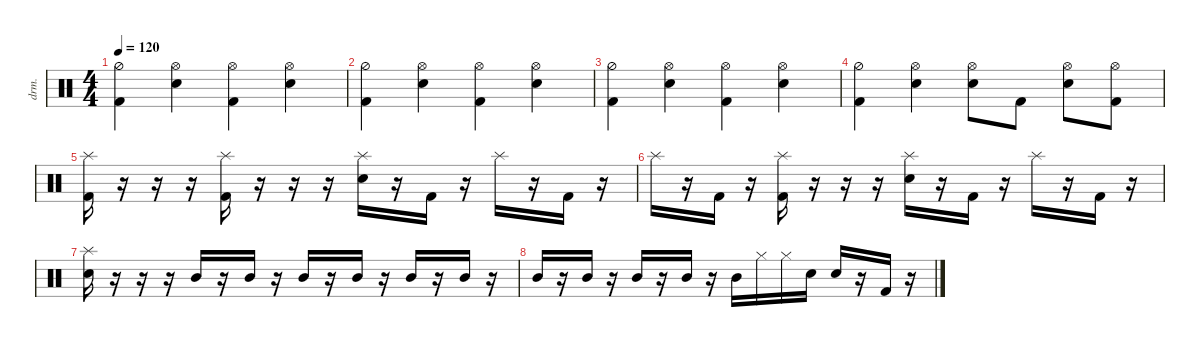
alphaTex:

\defaultSystemsLayout 4
\hideDynamics
\bracketExtendMode nobrackets
\otherSystemsTrackNameOrientation horizontal
\track ("Drumkit" "drm.") {instrument percussion}
\staff {score}
\articulation defaults
\ts (4 4)
\beaming (8 2 2 2 2)
\tempo 120
\clef neutral
\ks c
("Kick (hit) 2" "Hi-Hat (half)").4{dy mf beam Down} ("Snare (hit) 2" "Hi-Hat (open)").4{beam Down} ("Kick (hit) 2" "Hi-Hat (open)").4{beam Down} ("Snare (hit) 2" "Hi-Hat (open)").4{beam Down} |
("Kick (hit) 2" "Hi-Hat (half)").4{beam Down} ("Snare (hit) 2" "Hi-Hat (open)").4{beam Down} ("Kick (hit) 2" "Hi-Hat (open)").4{beam Down} ("Snare (hit) 2" "Hi-Hat (open)").4{beam Down} |
("Kick (hit) 2" "Hi-Hat (half)").4{beam Down} ("Snare (hit) 2" "Hi-Hat (open)").4{beam Down} ("Kick (hit) 2" "Hi-Hat (open)").4{beam Down} ("Snare (hit) 2" "Hi-Hat (open)").4{beam Down} |
("Hi-Hat (half)" "Kick (hit) 2").4{beam Down} ("Hi-Hat (open)" "Snare (hit) 2").4{beam Down} ("Hi-Hat (open)" "Snare (hit) 2").8{beam Down} "Kick (hit) 2".8{beam Down} ("Snare (hit) 2" "Hi-Hat (open)").8{beam Down} ("Hi-Hat (open)" "Kick (hit) 2").8{beam Down} |
("Kick (hit) 2" "Splash (hit)").16{beam Down} r.16{beam Down} r.16{beam Down} r.16{beam Down} ("Kick (hit) 2" "Splash (hit)").16{beam Down} r.16{beam Down} r.16{beam Down} r.16{beam Down} ("Snare (hit) 2" "Splash (hit)").16{beam Down} r.16{beam Down} "Kick (hit) 2".16{beam Down} r.16{beam Down} "Splash (hit)".16{beam Down} r.16{beam Down} "Kick (hit) 2".16{beam Down} r.16{beam Down} |
"Splash (hit)".16{beam Down} r.16{beam Down} "Kick (hit) 2".16{beam Down} r.16{beam Down} ("Kick (hit) 2" "Splash (hit)").16{beam Down} r.16{beam Down} r.16{beam Down} r.16{beam Down} ("Snare (hit) 2" "Splash (hit)").16{beam Down} r.16{beam Down} "Kick (hit) 2".16{beam Down} r.16{beam Down} "Splash (hit)".16{beam Down} r.16{beam Down} "Kick (hit) 2".16{beam Down} r.16{beam Down} |
("Snare (hit) 2" "Splash (hit)").16{beam Down} r.16{beam Down} r.16{beam Down} r.16{beam Down} "Mid Tom (hit)".16{beam Up} r.16{beam Up} "Mid Tom (hit)".16{beam Up} r.16{beam Up} "Mid Tom (hit)".16{beam Up} r.16{beam Up} "Mid Tom (hit)".16{beam Up} r.16{beam Up} "Mid Tom (hit)".16{beam Up} r.16{beam Up} "Mid Tom (hit)".16{beam Up} r.16{beam Up} |
"Mid Tom (hit)".16{beam Up} r.16{beam Up} "Mid Tom (hit)".16{beam Up} r.16{beam Up} "Mid Tom (hit)".16{beam Up} r.16{beam Up} "Mid Tom (hit)".16{beam Up} r.16{beam Up} "Mid Tom (hit)".16{beam Down} "Hi-Hat (closed)".16{beam Down} "Hi-Hat (closed)".16{beam Down} "Snare (hit) 2".16{beam Down} "Snare (hit) 2".16{beam Up} r.16{beam Up} "Kick (hit) 2".16{beam Up} r.16{beam Up}
